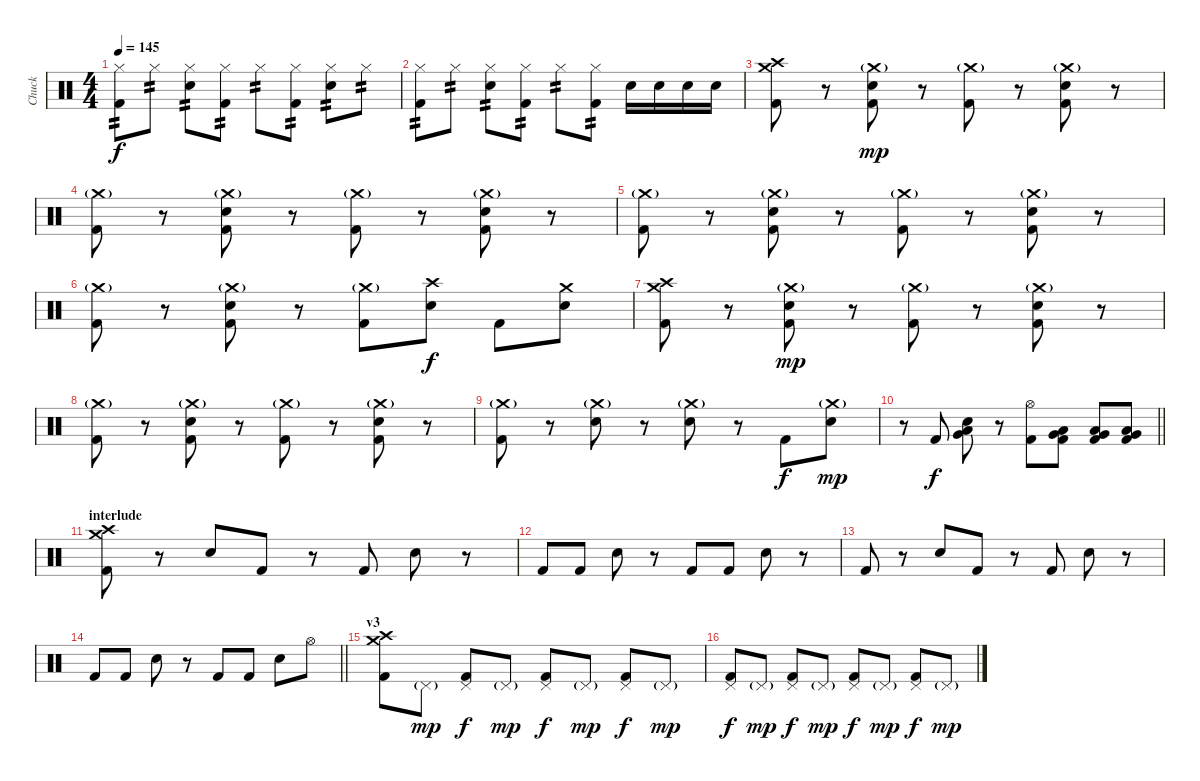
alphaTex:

\track ("Chuck" "Chuck") {instrument percussion}
\staff {score}
\articulation defaults
\ts (4 4)
\tempo 145
\clef neutral
\ks c
("Hi-Hat (closed)" "Kick (hit) 2").8{tp 2 dy f} "Hi-Hat (closed)".8{tp 2} ("Hi-Hat (closed)" "Snare (hit) 2").8{tp 2} ("Hi-Hat (closed)" "Kick (hit) 2").8{tp 2} "Hi-Hat (closed)".8{tp 2} ("Hi-Hat (closed)" "Kick (hit) 2").8{tp 2} ("Hi-Hat (closed)" "Snare (hit) 2").8{tp 2} "Hi-Hat (closed)".8{tp 2} |
("Hi-Hat (closed)" "Kick (hit) 2").8{tp 2} "Hi-Hat (closed)".8{tp 2} ("Hi-Hat (closed)" "Snare (hit) 2").8{tp 2} ("Hi-Hat (closed)" "Kick (hit) 2").8{tp 2} "Hi-Hat (closed)".8{tp 2} ("Hi-Hat (closed)" "Kick (hit) 2").8{tp 2} "Snare (hit) 2".16 "Snare (hit) 2".16 "Snare (hit) 2".16 "Snare (hit) 2".16 |
("Crash medium (hit)" "Crash high (hit)" "Kick (hit) 2").8 r.8 ("Crash medium (hit)"{g} "Snare (hit) 2" "Kick (hit) 2").8{dy mp} r.8 ("Crash medium (hit)"{g} "Kick (hit) 2").8 r.8 ("Crash medium (hit)"{g} "Snare (hit) 2" "Kick (hit) 2").8 r.8 |
("Crash medium (hit)"{g} "Kick (hit) 2").8 r.8 ("Crash medium (hit)"{g} "Snare (hit) 2" "Kick (hit) 2").8 r.8 ("Crash medium (hit)"{g} "Kick (hit) 2").8 r.8 ("Crash medium (hit)"{g} "Snare (hit) 2" "Kick (hit) 2").8 r.8 |
("Crash medium (hit)"{g} "Kick (hit) 2").8 r.8 ("Crash medium (hit)"{g} "Snare (hit) 2" "Kick (hit) 2").8 r.8 ("Crash medium (hit)"{g} "Kick (hit) 2").8 r.8 ("Crash medium (hit)"{g} "Snare (hit) 2" "Kick (hit) 2").8 r.8 |
("Crash medium (hit)"{g} "Kick (hit) 2").8 r.8 ("Crash medium (hit)"{g} "Snare (hit) 2" "Kick (hit) 2").8 r.8 ("Crash medium (hit)"{g} "Kick (hit) 2").8 ("Crash high (hit)" "Snare (hit) 2").8{dy f} "Kick (hit) 2".8 ("Crash medium (hit)" "Snare (hit) 2").8 |
("Crash medium (hit)" "Crash high (hit)" "Kick (hit) 2").8 r.8 ("Crash medium (hit)"{g} "Snare (hit) 2" "Kick (hit) 2").8{dy mp} r.8 ("Crash medium (hit)"{g} "Kick (hit) 2").8 r.8 ("Crash medium (hit)"{g} "Snare (hit) 2" "Kick (hit) 2").8 r.8 |
("Crash medium (hit)"{g} "Kick (hit) 2").8 r.8 ("Crash medium (hit)"{g} "Snare (hit) 2" "Kick (hit) 2").8 r.8 ("Crash medium (hit)"{g} "Kick (hit) 2").8 r.8 ("Crash medium (hit)"{g} "Snare (hit) 2" "Kick (hit) 2").8 r.8 |
("Crash medium (hit)"{g} "Kick (hit) 2").8 r.8 ("Crash medium (hit)"{g} "Snare (hit) 2").8 r.8 ("Crash medium (hit)"{g} "Snare (hit) 2").8 r.8 "Kick (hit) 2".8{dy f} ("Crash medium (hit)"{g} "Snare (hit) 2").8{dy mp} |
\barLineRight lightlight
r.8 "Kick (hit) 2".8{dy f} ("Very Low Tom (hit)" "Low Floor Tom (hit)" "Snare (hit) 2").8 r.8 ("Hi-Hat (open)" "Kick (hit) 2").8 ("Low Floor Tom (hit)" "Very Low Tom (hit)" "Kick (hit) 2").8 ("Low Floor Tom (hit)" "Very Low Tom (hit)" "Kick (hit) 2").8 ("Low Floor Tom (hit)" "Very Low Tom (hit)" "Kick (hit) 2").8 |
\section ("" "interlude")
("Crash medium (hit)" "Crash high (hit)" "Kick (hit) 2").8 r.8 "Electric Snare (hit)".8 "Kick (hit) 2".8 r.8 "Kick (hit) 2".8 "Electric Snare (hit)".8 r.8 |
"Kick (hit) 2".8 "Kick (hit) 2".8 "Electric Snare (hit)".8 r.8 "Kick (hit) 2".8 "Kick (hit) 2".8 "Electric Snare (hit)".8 r.8 |
"Kick (hit) 2".8 r.8 "Electric Snare (hit)".8 "Kick (hit) 2".8 r.8 "Kick (hit) 2".8 "Electric Snare (hit)".8 r.8 |
\barLineRight lightlight "Kick (hit) 2".8 "Kick (hit) 2".8 "Electric Snare (hit)".8
r.8 "Kick (hit) 2".8 "Kick (hit) 2".8 "Electric Snare (hit)".8 "Hi-Hat (open)".8 |
\section ("" "v3")
("Crash medium (hit)" "Crash high (hit)" "Kick (hit) 2").8 "Pedal Hi-Hat (hit)"{g}.8{dy mp} ("Pedal Hi-Hat (hit)" "Kick (hit) 2").8{dy f} "Pedal Hi-Hat (hit)"{g}.8{dy mp} ("Pedal Hi-Hat (hit)" "Kick (hit) 2").8{dy f} "Pedal Hi-Hat (hit)"{g}.8{dy mp} ("Pedal Hi-Hat (hit)" "Kick (hit) 2").8{dy f} "Pedal Hi-Hat (hit)"{g}.8{dy mp} |
("Pedal Hi-Hat (hit)" "Kick (hit) 2").8{dy f} "Pedal Hi-Hat (hit)"{g}.8{dy mp} ("Pedal Hi-Hat (hit)" "Kick (hit) 2").8{dy f} "Pedal Hi-Hat (hit)"{g}.8{dy mp} ("Pedal Hi-Hat (hit)" "Kick (hit) 2").8{dy f} "Pedal Hi-Hat (hit)"{g}.8{dy mp} ("Pedal Hi-Hat (hit)" "Kick (hit) 2").8{dy f} "Pedal Hi-Hat (hit)"{g}.8{dy mp}
